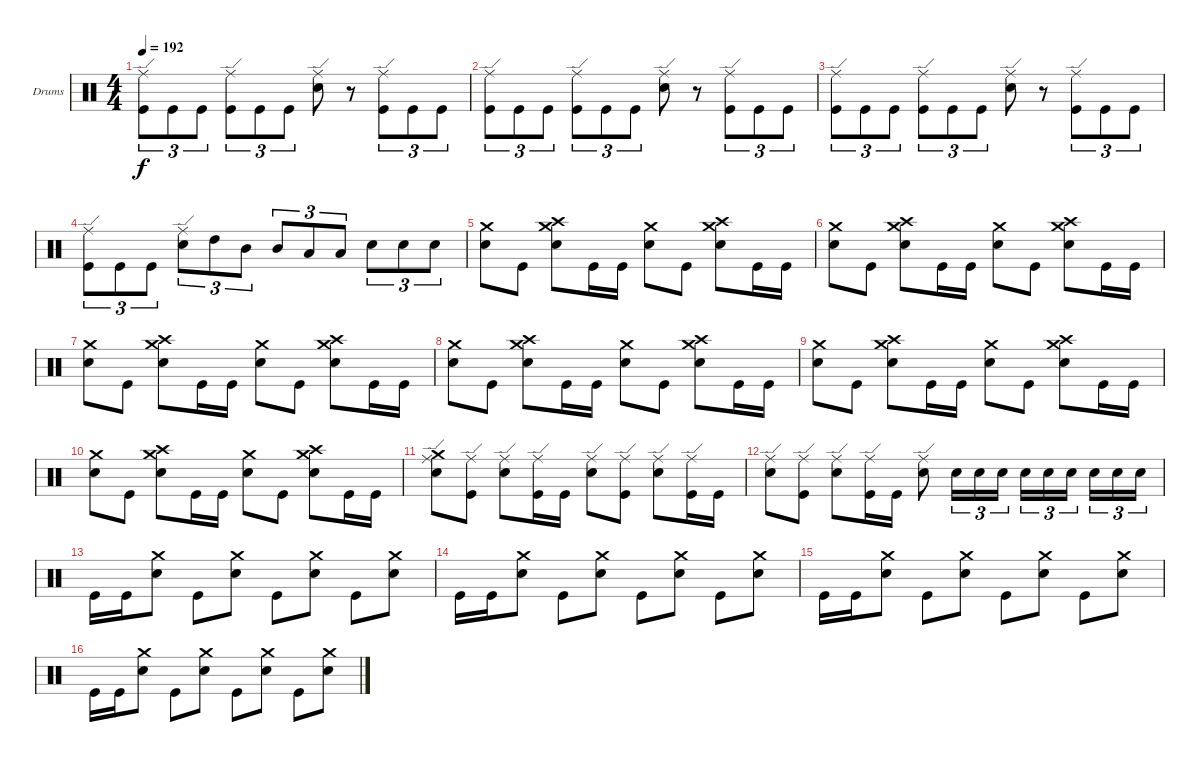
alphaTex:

\defaultSystemsLayout 4
\bracketExtendMode groupsimilarinstruments
\firstSystemTrackNameOrientation horizontal
\otherSystemsTrackNameOrientation horizontal
\track ("Drumkit" "Drums") {instrument percussion}
\staff {score}
\articulation defaults
\ts (4 4)
\tempo 192
\clef neutral
\ks c
("Kick (hit)" "Ride (edge)").8{tu (3 2) dy f} "Kick (hit)".8{tu (3 2)} "Kick (hit)".8{tu (3 2)} ("Kick (hit)" "Ride (edge)").8{tu (3 2)} "Kick (hit)".8{tu (3 2)} "Kick (hit)".8{tu (3 2)} ("Snare (hit) 2" "Ride (edge)").8 r.8 ("Kick (hit)" "Ride (edge)").8{tu (3 2)} "Kick (hit)".8{tu (3 2)} "Kick (hit)".8{tu (3 2)} |
("Kick (hit)" "Ride (edge)").8{tu (3 2)} "Kick (hit)".8{tu (3 2)} "Kick (hit)".8{tu (3 2)} ("Kick (hit)" "Ride (edge)").8{tu (3 2)} "Kick (hit)".8{tu (3 2)} "Kick (hit)".8{tu (3 2)} ("Snare (hit) 2" "Ride (edge)").8 r.8 ("Kick (hit)" "Ride (edge)").8{tu (3 2)} "Kick (hit)".8{tu (3 2)} "Kick (hit)".8{tu (3 2)} |
("Kick (hit)" "Ride (edge)").8{tu (3 2)} "Kick (hit)".8{tu (3 2)} "Kick (hit)".8{tu (3 2)} ("Kick (hit)" "Ride (edge)").8{tu (3 2)} "Kick (hit)".8{tu (3 2)} "Kick (hit)".8{tu (3 2)} ("Snare (hit) 2" "Ride (edge)").8 r.8 ("Kick (hit)" "Ride (edge)").8{tu (3 2)} "Kick (hit)".8{tu (3 2)} "Kick (hit)".8{tu (3 2)} |
("Ride (edge)" "Kick (hit)").8{tu (3 2)} "Kick (hit)".8{tu (3 2)} "Kick (hit)".8{tu (3 2)} ("Snare (hit) 2" "Ride (edge)").8{tu (3 2)} "High Tom (hit)".8{tu (3 2)} "Mid Tom (hit)".8{tu (3 2)} "Mid Tom (hit)".8{tu (3 2)} "Low Tom (hit)".8{tu (3 2)} "Low Tom (hit)".8{tu (3 2)} "Snare (hit) 2".8{tu (3 2)} "Snare (hit) 2".8{tu (3 2)} "Snare (hit) 2".8{tu (3 2)} |
("Crash medium (hit)" "Snare (hit) 2").8 "Kick (hit)".8 ("Snare (hit) 2" "Crash medium (hit)" "Crash high (hit)").8 "Kick (hit)".16 "Kick (hit)".16 ("Crash medium (hit)" "Snare (hit) 2").8 "Kick (hit)".8 ("Snare (hit) 2" "Crash medium (hit)" "Crash high (hit)").8 "Kick (hit)".16 "Kick (hit)".16 |
("Crash medium (hit)" "Snare (hit) 2").8 "Kick (hit)".8 ("Snare (hit) 2" "Crash medium (hit)" "Crash high (hit)").8 "Kick (hit)".16 "Kick (hit)".16 ("Crash medium (hit)" "Snare (hit) 2").8 "Kick (hit)".8 ("Snare (hit) 2" "Crash medium (hit)" "Crash high (hit)").8 "Kick (hit)".16 "Kick (hit)".16 |
("Crash medium (hit)" "Snare (hit) 2").8 "Kick (hit)".8 ("Snare (hit) 2" "Crash medium (hit)" "Crash high (hit)").8 "Kick (hit)".16 "Kick (hit)".16 ("Crash medium (hit)" "Snare (hit) 2").8 "Kick (hit)".8 ("Snare (hit) 2" "Crash medium (hit)" "Crash high (hit)").8 "Kick (hit)".16 "Kick (hit)".16 |
("Crash medium (hit)" "Snare (hit) 2").8 "Kick (hit)".8 ("Snare (hit) 2" "Crash medium (hit)" "Crash high (hit)").8 "Kick (hit)".16 "Kick (hit)".16 ("Crash medium (hit)" "Snare (hit) 2").8 "Kick (hit)".8 ("Snare (hit) 2" "Crash medium (hit)" "Crash high (hit)").8 "Kick (hit)".16 "Kick (hit)".16 |
("Crash medium (hit)" "Snare (hit) 2").8 "Kick (hit)".8 ("Snare (hit) 2" "Crash medium (hit)" "Crash high (hit)").8 "Kick (hit)".16 "Kick (hit)".16 ("Crash medium (hit)" "Snare (hit) 2").8 "Kick (hit)".8 ("Snare (hit) 2" "Crash medium (hit)" "Crash high (hit)").8 "Kick (hit)".16 "Kick (hit)".16 |
("Crash medium (hit)" "Snare (hit) 2").8 "Kick (hit)".8 ("Snare (hit) 2" "Crash medium (hit)" "Crash high (hit)").8 "Kick (hit)".16 "Kick (hit)".16 ("Crash medium (hit)" "Snare (hit) 2").8 "Kick (hit)".8 ("Snare (hit) 2" "Crash medium (hit)" "Crash high (hit)").8 "Kick (hit)".16 "Kick (hit)".16 |
("Crash medium (hit)" "Snare (hit) 2" "Ride (edge)").8 ("Kick (hit)" "Ride (edge)").8 ("Snare (hit) 2" "Ride (edge)").8 ("Kick (hit)" "Ride (edge)").16 "Kick (hit)".16 ("Snare (hit) 2" "Ride (edge)").8 ("Kick (hit)" "Ride (edge)").8 ("Snare (hit) 2" "Ride (edge)").8 ("Kick (hit)" "Ride (edge)").16 "Kick (hit)".16 |
("Ride (edge)" "Snare (hit) 2").8 ("Ride (edge)" "Kick (hit)").8 ("Snare (hit) 2" "Ride (edge)").8 ("Ride (edge)" "Kick (hit)").16 "Kick (hit)".16 ("Snare (hit) 2" "Ride (edge)").8 "Snare (hit) 2".16{tu (3 2)} "Snare (hit) 2".16{tu (3 2)} "Snare (hit) 2".16{tu (3 2)} "Snare (hit) 2".16{tu (3 2)} "Snare (hit) 2".16{tu (3 2)} "Snare (hit) 2".16{tu (3 2)} "Snare (hit) 2".16{tu (3 2)} "Snare (hit) 2".16{tu (3 2)} "Snare (hit) 2".16{tu (3 2)} |
"Kick (hit)".16 "Kick (hit)".16 ("Snare (hit) 2" "Crash medium (hit)").8 "Kick (hit)".8 ("Snare (hit) 2" "Crash medium (hit)").8 "Kick (hit)".8 ("Snare (hit) 2" "Crash medium (hit)").8 "Kick (hit)".8 ("Snare (hit) 2" "Crash medium (hit)").8 |
"Kick (hit)".16 "Kick (hit)".16 ("Snare (hit) 2" "Crash medium (hit)").8 "Kick (hit)".8 ("Snare (hit) 2" "Crash medium (hit)").8 "Kick (hit)".8 ("Snare (hit) 2" "Crash medium (hit)").8 "Kick (hit)".8 ("Snare (hit) 2" "Crash medium (hit)").8 |
"Kick (hit)".16 "Kick (hit)".16 ("Snare (hit) 2" "Crash medium (hit)").8 "Kick (hit)".8 ("Snare (hit) 2" "Crash medium (hit)").8 "Kick (hit)".8 ("Snare (hit) 2" "Crash medium (hit)").8 "Kick (hit)".8 ("Snare (hit) 2" "Crash medium (hit)").8 |
"Kick (hit)".16 "Kick (hit)".16 ("Snare (hit) 2" "Crash medium (hit)").8 "Kick (hit)".8 ("Snare (hit) 2" "Crash medium (hit)").8 "Kick (hit)".8 ("Snare (hit) 2" "Crash medium (hit)").8 "Kick (hit)".8 ("Snare (hit) 2" "Crash medium (hit)").8
